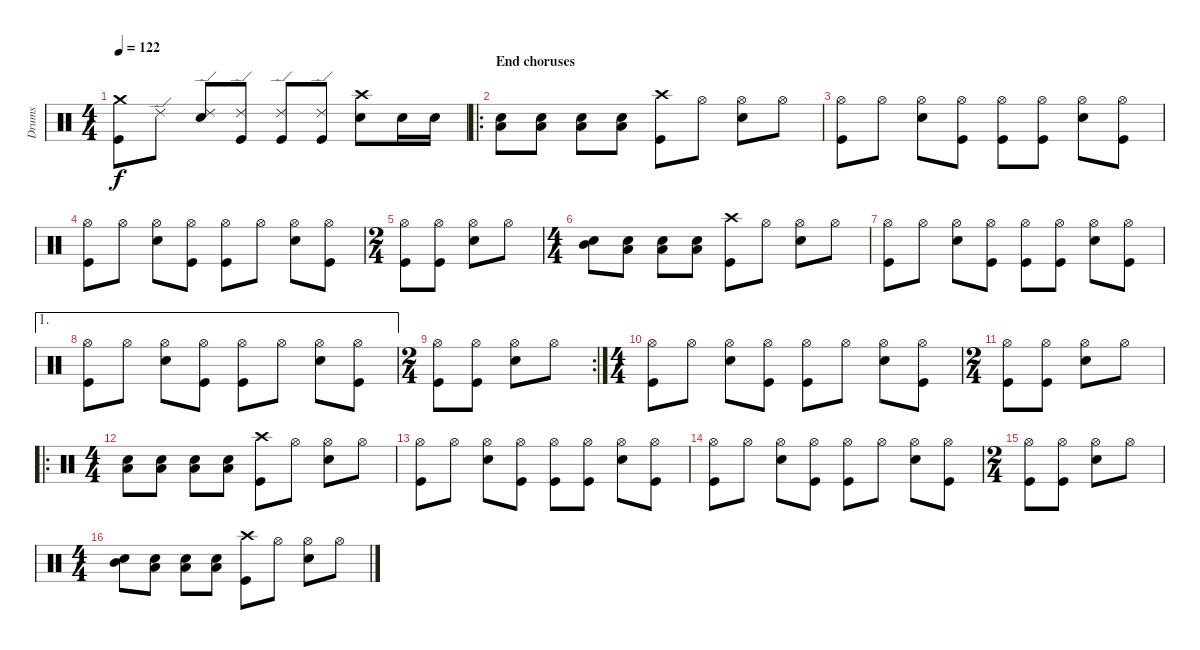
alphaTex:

\track ("Drums" "Drums") {instrument percussion}
\staff {score}
\articulation defaults
\ts (4 4)
\tempo 122
\clef neutral
\ks c
("Crash medium (hit)" "Kick (hit)").8{dy f} "Ride (edge) 2".8 ("Ride (edge) 2" "Snare (hit) 2").8 ("Ride (edge) 2" "Kick (hit)").8 ("Ride (edge) 2" "Kick (hit)").8 ("Ride (edge) 2" "Kick (hit)").8 ("Crash high (hit)" "Snare (hit) 2").8 "Snare (hit) 2".16 "Snare (hit) 2".16 |
\ro
\section ("" "End choruses")
("Low Floor Tom (hit)" "Snare (hit) 2").8 ("Low Floor Tom (hit)" "Snare (hit) 2").8 ("Low Floor Tom (hit)" "Snare (hit) 2").8 ("Low Floor Tom (hit)" "Snare (hit) 2").8 ("Crash high (hit)" "Kick (hit)").8 "Hi-Hat (open)".8 ("Hi-Hat (open)" "Snare (hit) 2").8 "Hi-Hat (open)".8 |
("Hi-Hat (open)" "Kick (hit)").8 "Hi-Hat (open)".8 ("Hi-Hat (open)" "Snare (hit) 2").8 ("Hi-Hat (open)" "Kick (hit)").8 ("Hi-Hat (open)" "Kick (hit)").8 ("Hi-Hat (open)" "Kick (hit)").8 ("Hi-Hat (open)" "Snare (hit) 2").8 ("Hi-Hat (open)" "Kick (hit)").8 |
("Hi-Hat (open)" "Kick (hit)").8 "Hi-Hat (open)".8 ("Hi-Hat (open)" "Snare (hit) 2").8 ("Hi-Hat (open)" "Kick (hit)").8 ("Hi-Hat (open)" "Kick (hit)").8 "Hi-Hat (open)".8 ("Hi-Hat (open)" "Snare (hit) 2").8 ("Hi-Hat (open)" "Kick (hit)").8 |
\ts (2 4)
("Hi-Hat (open)" "Kick (hit)").8 ("Hi-Hat (open)" "Kick (hit)").8 ("Hi-Hat (open)" "Snare (hit) 2").8 "Hi-Hat (open)".8 |
\ts (4 4)
("Mid Tom (hit)" "Snare (hit) 2").8 ("Low Tom (hit)" "Snare (hit) 2").8 ("Low Floor Tom (hit)" "Snare (hit) 2").8 ("Low Floor Tom (hit)" "Snare (hit) 2").8 ("Crash high (hit)" "Kick (hit)").8 "Hi-Hat (open)".8 ("Hi-Hat (open)" "Snare (hit) 2").8 "Hi-Hat (open)".8 |
("Hi-Hat (open)" "Kick (hit)").8 "Hi-Hat (open)".8 ("Hi-Hat (open)" "Snare (hit) 2").8 ("Hi-Hat (open)" "Kick (hit)").8 ("Hi-Hat (open)" "Kick (hit)").8 ("Hi-Hat (open)" "Kick (hit)").8 ("Hi-Hat (open)" "Snare (hit) 2").8 ("Hi-Hat (open)" "Kick (hit)").8 |
\ae 1
("Hi-Hat (open)" "Kick (hit)").8 "Hi-Hat (open)".8 ("Hi-Hat (open)" "Snare (hit) 2").8 ("Hi-Hat (open)" "Kick (hit)").8 ("Hi-Hat (open)" "Kick (hit)").8 "Hi-Hat (open)".8 ("Hi-Hat (open)" "Snare (hit) 2").8 ("Hi-Hat (open)" "Kick (hit)").8 |
\rc 2
\ts (2 4)
("Hi-Hat (open)" "Kick (hit)").8 ("Hi-Hat (open)" "Kick (hit)").8 ("Hi-Hat (open)" "Snare (hit) 2").8 "Hi-Hat (open)".8 |
\ts (4 4)
("Hi-Hat (open)" "Kick (hit)").8 "Hi-Hat (open)".8 ("Hi-Hat (open)" "Snare (hit) 2").8 ("Hi-Hat (open)" "Kick (hit)").8 ("Hi-Hat (open)" "Kick (hit)").8 "Hi-Hat (open)".8 ("Hi-Hat (open)" "Snare (hit) 2").8 ("Hi-Hat (open)" "Kick (hit)").8 |
\ts (2 4)
("Hi-Hat (open)" "Kick (hit)").8 ("Hi-Hat (open)" "Kick (hit)").8 ("Hi-Hat (open)" "Snare (hit) 2").8 "Hi-Hat (open)".8 |
\ro
\ts (4 4)
("Low Floor Tom (hit)" "Snare (hit) 2").8 ("Low Floor Tom (hit)" "Snare (hit) 2").8 ("Low Floor Tom (hit)" "Snare (hit) 2").8 ("Low Floor Tom (hit)" "Snare (hit) 2").8 ("Crash high (hit)" "Kick (hit)").8 "Hi-Hat (open)".8 ("Hi-Hat (open)" "Snare (hit) 2").8 "Hi-Hat (open)".8 |
("Hi-Hat (open)" "Kick (hit)").8 "Hi-Hat (open)".8 ("Hi-Hat (open)" "Snare (hit) 2").8 ("Hi-Hat (open)" "Kick (hit)").8 ("Hi-Hat (open)" "Kick (hit)").8 ("Hi-Hat (open)" "Kick (hit)").8 ("Hi-Hat (open)" "Snare (hit) 2").8 ("Hi-Hat (open)" "Kick (hit)").8 |
("Hi-Hat (open)" "Kick (hit)").8 "Hi-Hat (open)".8 ("Hi-Hat (open)" "Snare (hit) 2").8 ("Hi-Hat (open)" "Kick (hit)").8 ("Hi-Hat (open)" "Kick (hit)").8 "Hi-Hat (open)".8 ("Hi-Hat (open)" "Snare (hit) 2").8 ("Hi-Hat (open)" "Kick (hit)").8 |
\ts (2 4)
("Hi-Hat (open)" "Kick (hit)").8 ("Hi-Hat (open)" "Kick (hit)").8 ("Hi-Hat (open)" "Snare (hit) 2").8 "Hi-Hat (open)".8 |
\ts (4 4)
("Mid Tom (hit)" "Snare (hit) 2").8 ("Low Tom (hit)" "Snare (hit) 2").8 ("Low Floor Tom (hit)" "Snare (hit) 2").8 ("Low Floor Tom (hit)" "Snare (hit) 2").8 ("Crash high (hit)" "Kick (hit)").8 "Hi-Hat (open)".8 ("Hi-Hat (open)" "Snare (hit) 2").8 "Hi-Hat (open)".8
